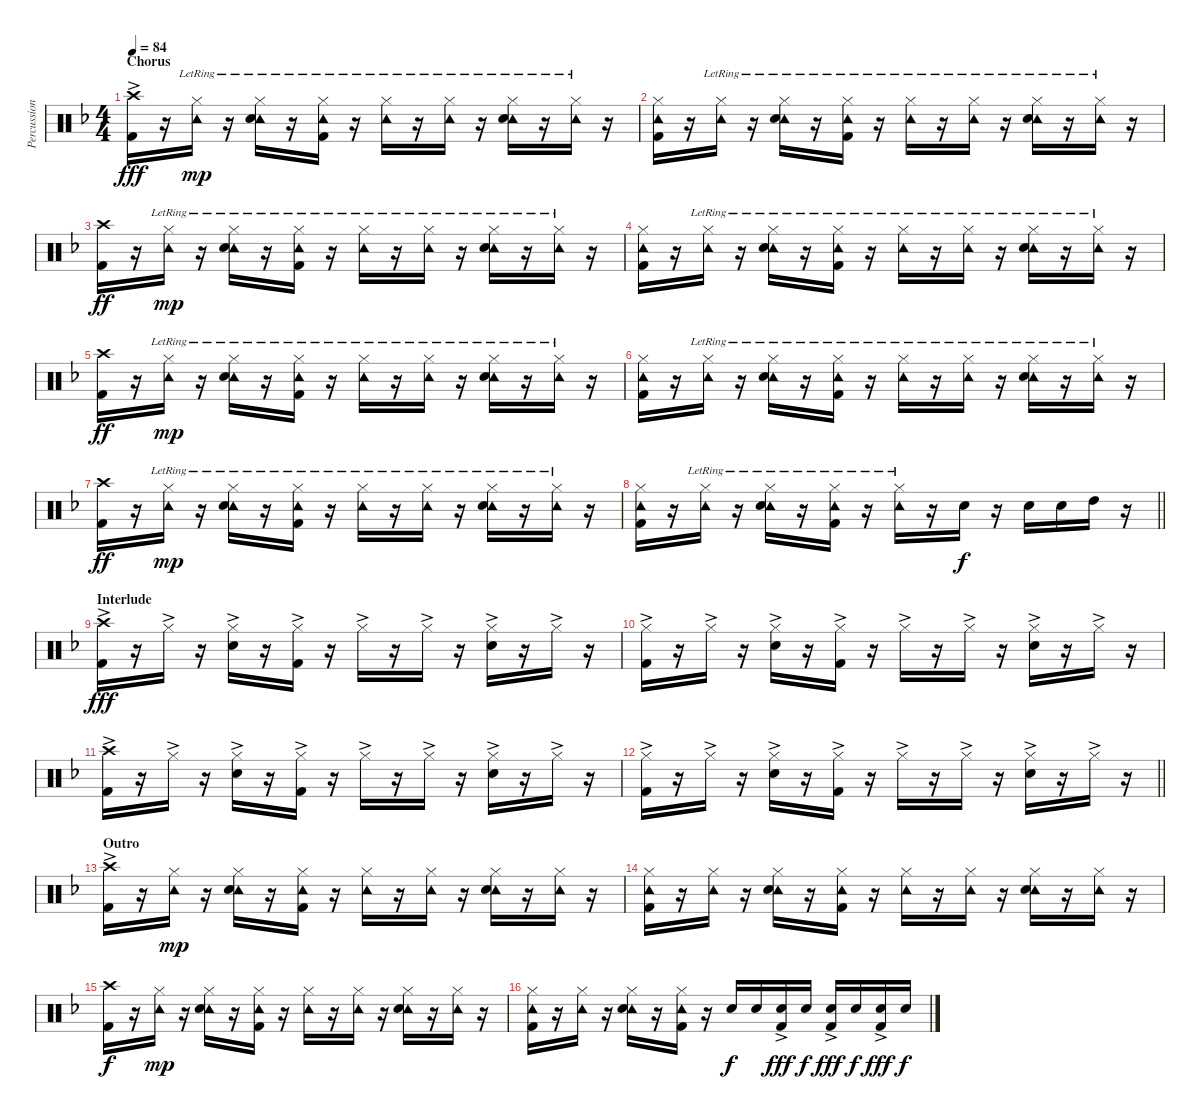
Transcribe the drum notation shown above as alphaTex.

\track ("Percussion" "Percussion") {instrument percussion}
\staff {score}
\articulation defaults
\ts (4 4)
\section ("" "Chorus")
\tempo 84
\clef neutral
\ks f
("Crash high (hit)"{ac} "Kick (hit) 2").16{dy fff} r.16 ("Hi-Hat (closed)" "Tambourine (hit)"{lr}).16{dy mp} r.16 ("Hi-Hat (closed)" "Tambourine (hit)"{lr} "Snare (hit) 2").16 r.16 ("Hi-Hat (closed)" "Tambourine (hit)"{lr} "Kick (hit) 2").16 r.16 ("Hi-Hat (closed)" "Tambourine (hit)"{lr}).16 r.16 ("Hi-Hat (closed)" "Tambourine (hit)"{lr}).16 r.16 ("Hi-Hat (closed)" "Tambourine (hit)"{lr} "Snare (hit) 2").16 r.16 ("Hi-Hat (closed)" "Tambourine (hit)"{lr}).16 r.16 |
("Hi-Hat (closed)" "Tambourine (hit)" "Kick (hit) 2").16 r.16 ("Hi-Hat (closed)" "Tambourine (hit)"{lr}).16 r.16 ("Hi-Hat (closed)" "Tambourine (hit)"{lr} "Snare (hit) 2").16 r.16 ("Hi-Hat (closed)" "Tambourine (hit)"{lr} "Kick (hit) 2").16 r.16 ("Hi-Hat (closed)" "Tambourine (hit)"{lr}).16 r.16 ("Hi-Hat (closed)" "Tambourine (hit)"{lr}).16 r.16 ("Hi-Hat (closed)" "Tambourine (hit)"{lr} "Snare (hit) 2").16 r.16 ("Hi-Hat (closed)" "Tambourine (hit)"{lr}).16 r.16 |
("Crash high (hit)" "Kick (hit) 2").16{dy ff} r.16 ("Hi-Hat (closed)" "Tambourine (hit)"{lr}).16{dy mp} r.16 ("Hi-Hat (closed)" "Tambourine (hit)"{lr} "Snare (hit) 2").16 r.16 ("Hi-Hat (closed)" "Tambourine (hit)"{lr} "Kick (hit) 2").16 r.16 ("Hi-Hat (closed)" "Tambourine (hit)"{lr}).16 r.16 ("Hi-Hat (closed)" "Tambourine (hit)"{lr}).16 r.16 ("Hi-Hat (closed)" "Tambourine (hit)"{lr} "Snare (hit) 2").16 r.16 ("Hi-Hat (closed)" "Tambourine (hit)"{lr}).16 r.16 |
("Hi-Hat (closed)" "Tambourine (hit)" "Kick (hit) 2").16 r.16 ("Hi-Hat (closed)" "Tambourine (hit)"{lr}).16 r.16 ("Hi-Hat (closed)" "Tambourine (hit)"{lr} "Snare (hit) 2").16 r.16 ("Hi-Hat (closed)" "Tambourine (hit)"{lr} "Kick (hit) 2").16 r.16 ("Hi-Hat (closed)" "Tambourine (hit)"{lr}).16 r.16 ("Hi-Hat (closed)" "Tambourine (hit)"{lr}).16 r.16 ("Hi-Hat (closed)" "Tambourine (hit)"{lr} "Snare (hit) 2").16 r.16 ("Hi-Hat (closed)" "Tambourine (hit)"{lr}).16 r.16 |
("Crash high (hit)" "Kick (hit) 2").16{dy ff} r.16 ("Hi-Hat (closed)" "Tambourine (hit)"{lr}).16{dy mp} r.16 ("Hi-Hat (closed)" "Tambourine (hit)"{lr} "Snare (hit) 2").16 r.16 ("Hi-Hat (closed)" "Tambourine (hit)"{lr} "Kick (hit) 2").16 r.16 ("Hi-Hat (closed)" "Tambourine (hit)"{lr}).16 r.16 ("Hi-Hat (closed)" "Tambourine (hit)"{lr}).16 r.16 ("Hi-Hat (closed)" "Tambourine (hit)"{lr} "Snare (hit) 2").16 r.16 ("Hi-Hat (closed)" "Tambourine (hit)"{lr}).16 r.16 |
("Hi-Hat (closed)" "Tambourine (hit)" "Kick (hit) 2").16 r.16 ("Hi-Hat (closed)" "Tambourine (hit)"{lr}).16 r.16 ("Hi-Hat (closed)" "Tambourine (hit)"{lr} "Snare (hit) 2").16 r.16 ("Hi-Hat (closed)" "Tambourine (hit)"{lr} "Kick (hit) 2").16 r.16 ("Hi-Hat (closed)" "Tambourine (hit)"{lr}).16 r.16 ("Hi-Hat (closed)" "Tambourine (hit)"{lr}).16 r.16 ("Hi-Hat (closed)" "Tambourine (hit)"{lr} "Snare (hit) 2").16 r.16 ("Hi-Hat (closed)" "Tambourine (hit)"{lr}).16 r.16 |
("Crash high (hit)" "Kick (hit) 2").16{dy ff} r.16 ("Hi-Hat (closed)" "Tambourine (hit)"{lr}).16{dy mp} r.16 ("Hi-Hat (closed)" "Tambourine (hit)"{lr} "Snare (hit) 2").16 r.16 ("Hi-Hat (closed)" "Tambourine (hit)"{lr} "Kick (hit) 2").16 r.16 ("Hi-Hat (closed)" "Tambourine (hit)"{lr}).16 r.16 ("Hi-Hat (closed)" "Tambourine (hit)"{lr}).16 r.16 ("Hi-Hat (closed)" "Tambourine (hit)"{lr} "Snare (hit) 2").16 r.16 ("Hi-Hat (closed)" "Tambourine (hit)"{lr}).16 r.16 |
\barLineRight lightlight
("Hi-Hat (closed)" "Tambourine (hit)" "Kick (hit) 2").16 r.16 ("Hi-Hat (closed)" "Tambourine (hit)"{lr}).16 r.16 ("Hi-Hat (closed)" "Tambourine (hit)"{lr} "Snare (hit) 2").16 r.16 ("Hi-Hat (closed)" "Tambourine (hit)"{lr} "Kick (hit) 2").16 r.16 ("Hi-Hat (closed)" "Tambourine (hit)"{lr}).16 r.16 "Snare (hit) 2".16{dy f} r.16 "Snare (hit) 2".16 "Snare (hit) 2".16 "High Tom (hit)".16 r.16 |
\section ("" "Interlude")
("Crash high (hit)"{ac} "Kick (hit) 2").16{dy fff} r.16 "Hi-Hat (closed)"{ac}.16 r.16 ("Hi-Hat (closed)"{ac} "Snare (hit) 2").16 r.16 ("Hi-Hat (closed)"{ac} "Kick (hit) 2").16 r.16 "Hi-Hat (closed)"{ac}.16 r.16 "Hi-Hat (closed)"{ac}.16 r.16 ("Hi-Hat (closed)"{ac} "Snare (hit) 2").16 r.16 "Hi-Hat (closed)"{ac}.16 r.16 |
("Hi-Hat (closed)"{ac} "Kick (hit) 2").16 r.16 "Hi-Hat (closed)"{ac}.16 r.16 ("Hi-Hat (closed)"{ac} "Snare (hit) 2").16 r.16 ("Hi-Hat (closed)"{ac} "Kick (hit) 2").16 r.16 "Hi-Hat (closed)"{ac}.16 r.16 "Hi-Hat (closed)"{ac}.16 r.16 ("Hi-Hat (closed)"{ac} "Snare (hit) 2").16 r.16 "Hi-Hat (closed)"{ac}.16 r.16 |
("Crash high (hit)"{ac} "Kick (hit) 2").16 r.16 "Hi-Hat (closed)"{ac}.16 r.16 ("Hi-Hat (closed)"{ac} "Snare (hit) 2").16 r.16 ("Hi-Hat (closed)"{ac} "Kick (hit) 2").16 r.16 "Hi-Hat (closed)"{ac}.16 r.16 "Hi-Hat (closed)"{ac}.16 r.16 ("Hi-Hat (closed)"{ac} "Snare (hit) 2").16 r.16 "Hi-Hat (closed)"{ac}.16 r.16 |
\barLineRight lightlight
("Hi-Hat (closed)"{ac} "Kick (hit) 2").16 r.16 "Hi-Hat (closed)"{ac}.16 r.16 ("Hi-Hat (closed)"{ac} "Snare (hit) 2").16 r.16 ("Hi-Hat (closed)"{ac} "Kick (hit) 2").16 r.16 "Hi-Hat (closed)"{ac}.16 r.16 "Hi-Hat (closed)"{ac}.16 r.16 ("Hi-Hat (closed)"{ac} "Snare (hit) 2").16 r.16 "Hi-Hat (closed)"{ac}.16 r.16 |
\section ("" "Outro")
("Crash high (hit)"{ac} "Kick (hit) 2").16 r.16 ("Hi-Hat (closed)" "Tambourine (hit)").16{dy mp} r.16 ("Hi-Hat (closed)" "Tambourine (hit)" "Snare (hit) 2").16 r.16 ("Hi-Hat (closed)" "Tambourine (hit)" "Kick (hit) 2").16 r.16 ("Hi-Hat (closed)" "Tambourine (hit)").16 r.16 ("Hi-Hat (closed)" "Tambourine (hit)").16 r.16 ("Hi-Hat (closed)" "Tambourine (hit)" "Snare (hit) 2").16 r.16 ("Hi-Hat (closed)" "Tambourine (hit)").16 r.16 |
("Hi-Hat (closed)" "Tambourine (hit)" "Kick (hit) 2").16 r.16 ("Hi-Hat (closed)" "Tambourine (hit)").16 r.16 ("Hi-Hat (closed)" "Tambourine (hit)" "Snare (hit) 2").16 r.16 ("Hi-Hat (closed)" "Tambourine (hit)" "Kick (hit) 2").16 r.16 ("Hi-Hat (closed)" "Tambourine (hit)").16 r.16 ("Hi-Hat (closed)" "Tambourine (hit)").16 r.16 ("Hi-Hat (closed)" "Tambourine (hit)" "Snare (hit) 2").16 r.16 ("Hi-Hat (closed)" "Tambourine (hit)").16 r.16 |
("Crash high (hit)" "Kick (hit) 2").16{dy f} r.16 ("Hi-Hat (closed)" "Tambourine (hit)").16{dy mp} r.16 ("Hi-Hat (closed)" "Tambourine (hit)" "Snare (hit) 2").16 r.16 ("Hi-Hat (closed)" "Tambourine (hit)" "Kick (hit) 2").16 r.16 ("Hi-Hat (closed)" "Tambourine (hit)").16 r.16 ("Hi-Hat (closed)" "Tambourine (hit)").16 r.16 ("Hi-Hat (closed)" "Tambourine (hit)" "Snare (hit) 2").16 r.16 ("Hi-Hat (closed)" "Tambourine (hit)").16 r.16 |
("Hi-Hat (closed)" "Tambourine (hit)" "Kick (hit) 2").16 r.16 ("Hi-Hat (closed)" "Tambourine (hit)").16 r.16 ("Hi-Hat (closed)" "Tambourine (hit)" "Snare (hit) 2").16 r.16 ("Hi-Hat (closed)" "Tambourine (hit)" "Kick (hit) 2").16 r.16 "Snare (hit) 2".16{dy f} "Snare (hit) 2".16 ("Snare (hit) 2"{ac} "Kick (hit) 2").16{dy fff} "Snare (hit) 2".16{dy f} ("Snare (hit) 2"{ac} "Kick (hit) 2").16{dy fff} "Snare (hit) 2".16{dy f} ("Snare (hit) 2"{ac} "Kick (hit) 2").16{dy fff} "Snare (hit) 2".16{dy f}
